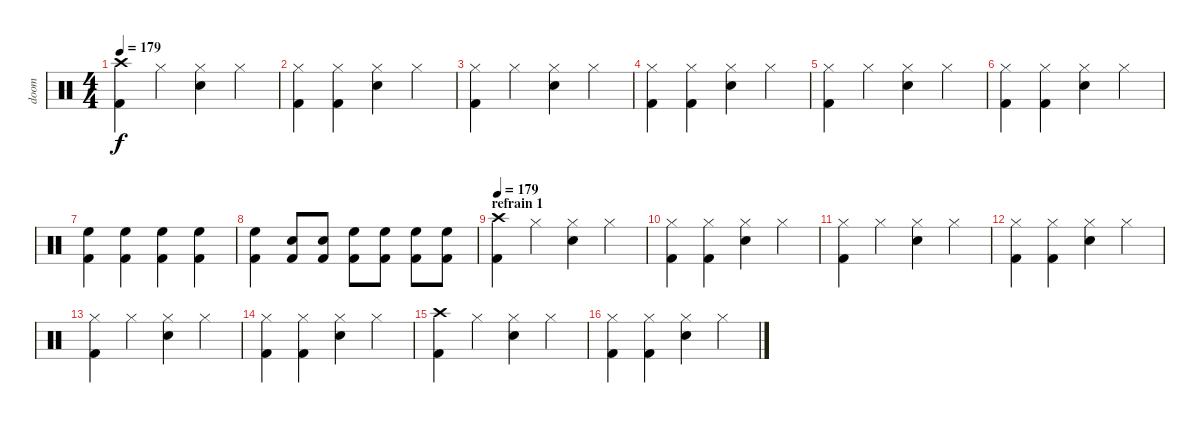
\track ("doom" "doom") {instrument percussion}
\staff {score}
\articulation defaults
\ts (4 4)
\tempo 179
\clef neutral
\ks c
("Crash high (hit)" "Kick (hit) 2").4{dy f} "Hi-Hat (closed)".4 ("Hi-Hat (closed)" "Snare (hit) 2").4 "Hi-Hat (closed)".4 |
("Hi-Hat (closed)" "Kick (hit) 2").4 ("Hi-Hat (closed)" "Kick (hit) 2").4 ("Hi-Hat (closed)" "Snare (hit) 2").4 "Hi-Hat (closed)".4 |
("Hi-Hat (closed)" "Kick (hit) 2").4 "Hi-Hat (closed)".4 ("Hi-Hat (closed)" "Snare (hit) 2").4 "Hi-Hat (closed)".4 |
("Hi-Hat (closed)" "Kick (hit) 2").4 ("Hi-Hat (closed)" "Kick (hit) 2").4 ("Hi-Hat (closed)" "Snare (hit) 2").4 "Hi-Hat (closed)".4 |
("Hi-Hat (closed)" "Kick (hit) 2").4 "Hi-Hat (closed)".4 ("Hi-Hat (closed)" "Snare (hit) 2").4 "Hi-Hat (closed)".4 |
("Hi-Hat (closed)" "Kick (hit) 2").4 ("Hi-Hat (closed)" "Kick (hit) 2").4 ("Hi-Hat (closed)" "Snare (hit) 2").4 "Hi-Hat (closed)".4 |
("Kick (hit) 2" "High Floor Tom (hit)").4 ("Kick (hit) 2" "High Floor Tom (hit)").4 ("Kick (hit) 2" "High Floor Tom (hit)").4 ("Kick (hit) 2" "High Floor Tom (hit)").4 |
("Kick (hit) 2" "High Floor Tom (hit)").4 ("Kick (hit) 2" "Snare (hit) 2").8 ("Kick (hit) 2" "Snare (hit) 2").8 ("Kick (hit) 2" "High Floor Tom (hit)").8 ("Kick (hit) 2" "High Floor Tom (hit)").8 ("Kick (hit) 2" "High Floor Tom (hit)").8 ("Kick (hit) 2" "High Floor Tom (hit)").8 |
\section ("" "refrain 1")
\tempo 179
("Crash high (hit)" "Kick (hit) 2").4 "Hi-Hat (closed)".4 ("Hi-Hat (closed)" "Snare (hit) 2").4 "Hi-Hat (closed)".4 |
("Hi-Hat (closed)" "Kick (hit) 2").4 ("Hi-Hat (closed)" "Kick (hit) 2").4 ("Hi-Hat (closed)" "Snare (hit) 2").4 "Hi-Hat (closed)".4 |
("Hi-Hat (closed)" "Kick (hit) 2").4 "Hi-Hat (closed)".4 ("Hi-Hat (closed)" "Snare (hit) 2").4 "Hi-Hat (closed)".4 |
("Hi-Hat (closed)" "Kick (hit) 2").4 ("Hi-Hat (closed)" "Kick (hit) 2").4 ("Hi-Hat (closed)" "Snare (hit) 2").4 "Hi-Hat (closed)".4 |
("Hi-Hat (closed)" "Kick (hit) 2").4 "Hi-Hat (closed)".4 ("Hi-Hat (closed)" "Snare (hit) 2").4 "Hi-Hat (closed)".4 |
("Hi-Hat (closed)" "Kick (hit) 2").4 ("Hi-Hat (closed)" "Kick (hit) 2").4 ("Hi-Hat (closed)" "Snare (hit) 2").4 "Hi-Hat (closed)".4 |
("Crash high (hit)" "Kick (hit) 2").4 "Hi-Hat (closed)".4 ("Hi-Hat (closed)" "Snare (hit) 2").4 "Hi-Hat (closed)".4 |
("Hi-Hat (closed)" "Kick (hit) 2").4 ("Hi-Hat (closed)" "Kick (hit) 2").4 ("Hi-Hat (closed)" "Snare (hit) 2").4 "Hi-Hat (closed)".4
